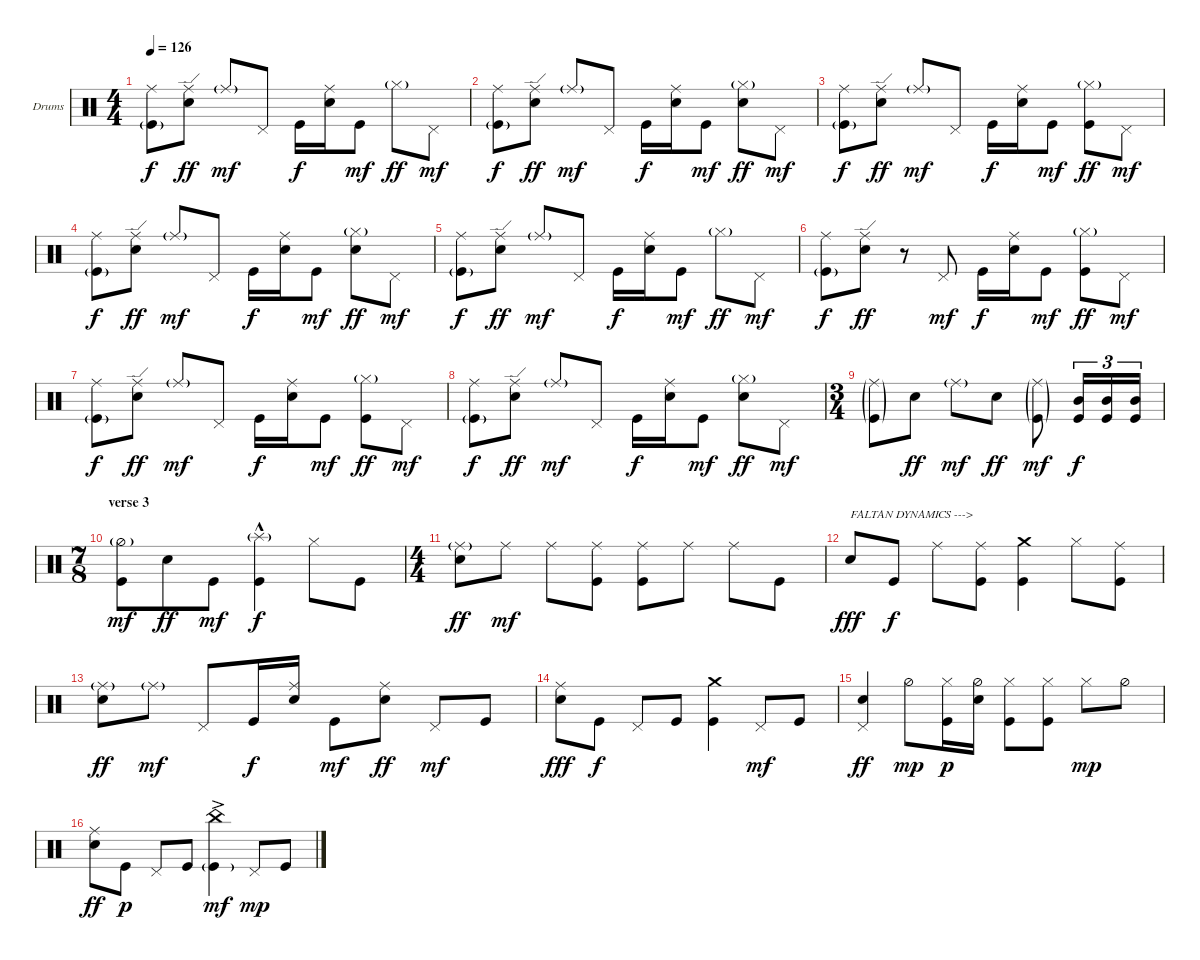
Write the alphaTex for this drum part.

\bracketExtendMode groupsimilarinstruments
\firstSystemTrackNameOrientation horizontal
\otherSystemsTrackNameOrientation horizontal
\track ("drums - john hinch" "Drums") {instrument percussion}
\staff {score}
\articulation defaults
\ts (4 4)
\tempo 126
\clef neutral
\scale
0.333333
\ks c
("Kick (hit)"{g} "Ride (middle)").8{dy f} ("Snare (hit) 2" "Ride (edge)").8{dy ff} "Ride (middle)"{g}.8{dy mf} "Pedal Hi-Hat (hit)".8 "Kick (hit)".16{dy f} ("Snare (hit) 2" "Ride (middle)").16 "Kick (hit)".8{dy mf} "Hi-Hat (closed)"{g}.8{dy ff} "Pedal Hi-Hat (hit)".8{dy mf} |
\scale
0.333333 ("Kick (hit)"{g} "Ride (middle)").8{dy f} ("Snare (hit) 2" "Ride (edge)").8{dy ff} "Ride (middle)"{g}.8{dy mf} "Pedal Hi-Hat (hit)".8 "Kick (hit)".16{dy f} ("Snare (hit) 2" "Ride (middle)").16 "Kick (hit)".8{dy mf} ("Snare (hit) 2" "Hi-Hat (closed)"{g}).8{dy ff} "Pedal Hi-Hat (hit)".8{dy mf} |
\scale
0.333333 ("Kick (hit)"{g} "Ride (middle)").8{dy f} ("Snare (hit) 2" "Ride (edge)").8{dy ff} "Ride (middle)"{g}.8{dy mf} "Pedal Hi-Hat (hit)".8 "Kick (hit)".16{dy f} ("Snare (hit) 2" "Ride (middle)").16 "Kick (hit)".8{dy mf} ("Hi-Hat (closed)"{g} "Kick (hit)").8{dy ff} "Pedal Hi-Hat (hit)".8{dy mf} |
\scale
0.333333 ("Kick (hit)"{g} "Ride (middle)").8{dy f} ("Snare (hit) 2" "Ride (edge)").8{dy ff} "Ride (middle)"{g}.8{dy mf} "Pedal Hi-Hat (hit)".8 "Kick (hit)".16{dy f} ("Snare (hit) 2" "Ride (middle)").16 "Kick (hit)".8{dy mf} ("Snare (hit) 2" "Hi-Hat (closed)"{g}).8{dy ff} "Pedal Hi-Hat (hit)".8{dy mf} |
\scale
0.333333 ("Kick (hit)"{g} "Ride (middle)").8{dy f} ("Snare (hit) 2" "Ride (edge)").8{dy ff} "Ride (middle)"{g}.8{dy mf} "Pedal Hi-Hat (hit)".8 "Kick (hit)".16{dy f} ("Snare (hit) 2" "Ride (middle)").16 "Kick (hit)".8{dy mf} "Hi-Hat (closed)"{g}.8{dy ff} "Pedal Hi-Hat (hit)".8{dy mf} |
\scale
0.333333 ("Kick (hit)"{g} "Ride (middle)").8{dy f} ("Snare (hit) 2" "Ride (edge)").8{dy ff} r.8 "Pedal Hi-Hat (hit)".8{dy mf} "Kick (hit)".16{dy f} ("Snare (hit) 2" "Ride (middle)").16 "Kick (hit)".8{dy mf} ("Hi-Hat (closed)"{g} "Kick (hit)").8{dy ff} "Pedal Hi-Hat (hit)".8{dy mf} |
\scale
0.333333 ("Kick (hit)"{g} "Ride (middle)").8{dy f} ("Snare (hit) 2" "Ride (edge)").8{dy ff} "Ride (middle)"{g}.8{dy mf} "Pedal Hi-Hat (hit)".8 "Kick (hit)".16{dy f} ("Snare (hit) 2" "Ride (middle)").16 "Kick (hit)".8{dy mf} ("Hi-Hat (closed)"{g} "Kick (hit)").8{dy ff} "Pedal Hi-Hat (hit)".8{dy mf} |
\scale
0.262911 ("Kick (hit)"{g} "Ride (middle)").8{dy f} ("Snare (hit) 2" "Ride (edge)").8{dy ff} "Ride (middle)"{g}.8{dy mf} "Pedal Hi-Hat (hit)".8 "Kick (hit)".16{dy f} ("Snare (hit) 2" "Ride (middle)").16 "Kick (hit)".8{dy mf} ("Snare (hit) 2" "Hi-Hat (closed)"{g}).8{dy ff} "Pedal Hi-Hat (hit)".8{dy mf} |
\ts (3 4)
\scale
0.262911 ("Kick (hit)"{g} "Ride (middle)"{g}).8 "Snare (hit) 2".8{dy ff} "Ride (middle)"{g}.8{dy mf} "Snare (hit) 2".8{dy ff} ("Ride (middle)"{g} "Kick (hit)"{g}).8{dy mf} ("Kick (hit)" "Mid Tom (hit)").16{tu (3 2) dy f} ("Kick (hit)" "Mid Tom (hit)").16{tu (3 2)} ("Kick (hit)" "Mid Tom (hit)").16{tu (3 2)} |
\ts (7 8)
\section ("" "verse 3")
\scale
0.474178 ("Kick (hit)" "Hi-Hat (half)"{g}).8{dy mf} "Snare (hit) 2".8{dy ff} "Kick (hit)".8{dy mf} ("Splash (hit)"{g} "Kick (hit)"{hac}).4{dy f} "Hi-Hat (closed)".8 "Kick (hit)".8 |
\ts (4 4)
\scale
0.474178 ("Ride (middle)"{g} "Snare (hit) 2").8{dy ff} "Ride (middle)".8{dy mf} "Ride (middle)".8 ("Ride (middle)" "Kick (hit)").8 ("Ride (middle)" "Kick (hit)").8 "Ride (middle)".8 "Ride (middle)".8 "Kick (hit)".8 |
\scale
0.262911 "Snare (hit) 2".8{txt "FALTAN DYNAMICS --->" dy fff} "Kick (hit)".8{dy f} "Ride (middle)".8 ("Ride (middle)" "Kick (hit)").8 ("Kick (hit)" "Crash medium (hit)").4 "Hi-Hat (closed)".8 ("Kick (hit)" "Ride (middle)").8 |
\scale
0.262911 ("Snare (hit) 2" "Ride (middle)"{g}).8{dy ff} "Ride (middle)"{g}.8{dy mf} "Pedal Hi-Hat (hit)".8 "Kick (hit)".16{dy f} ("Snare (hit) 2" "Ride (middle)").16 "Kick (hit)".8{dy mf} ("Snare (hit) 2" "Ride (middle)").8{dy ff} "Pedal Hi-Hat (hit)".8{dy mf} "Kick (hit)".8 |
\scale
0.333333 ("Snare (hit) 2" "Ride (middle)").8{dy fff} "Kick (hit)".8{dy f} "Pedal Hi-Hat (hit)".8 "Kick (hit)".8 ("Kick (hit)" "Crash medium (hit)").4 "Pedal Hi-Hat (hit)".8{dy mf} "Kick (hit)".8 |
\scale
0.333333 ("Snare (hit) 2" "Pedal Hi-Hat (hit)").4{dy ff} "Hi-Hat (half)".8{dy mp} ("Kick (hit)" "Hi-Hat (closed)").16{dy p} ("Snare (hit) 2" "Hi-Hat (half)").16 ("Kick (hit)" "Hi-Hat (closed)").8 ("Kick (hit)" "Hi-Hat (closed)").8 "Hi-Hat (closed)".8{dy mp} "Hi-Hat (half)".8 |
\scale
0.333333 ("Snare (hit) 2" "Ride (middle)").8{dy ff} "Kick (hit)".8{dy p} "Pedal Hi-Hat (hit)".8 "Kick (hit)".8 ("China (hit)"{ac} "Kick (hit)"{g}).4{dy mf} "Pedal Hi-Hat (hit)".8{dy mp} "Kick (hit)".8
